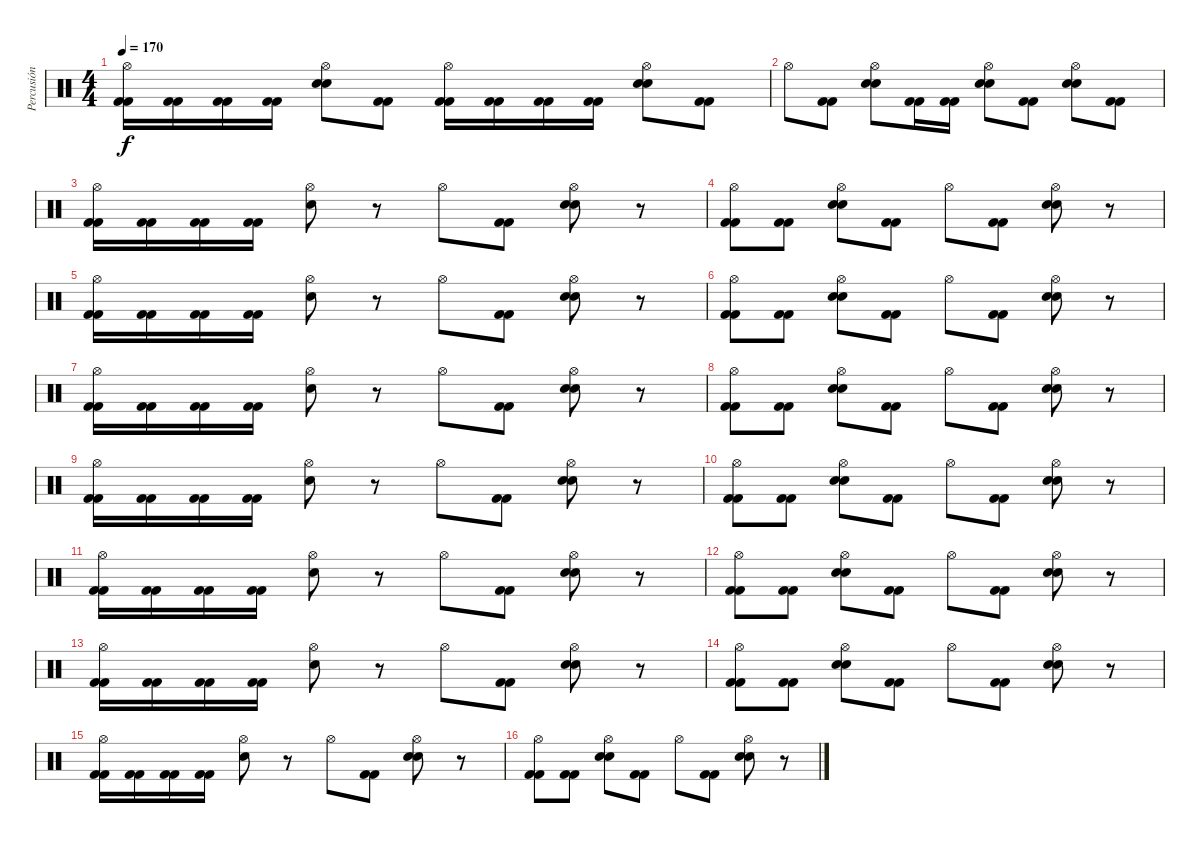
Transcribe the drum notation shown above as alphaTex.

\track ("Percusión" "Percusión") {instrument percussion}
\staff {score}
\articulation defaults
\ts (4 4)
\tempo 170
\clef neutral
\ks c
("Hi-Hat (open)" "Kick (hit) 2" "Kick (hit) 2").16{dy f} ("Kick (hit) 2" "Kick (hit) 2").16 ("Kick (hit) 2" "Kick (hit) 2").16 ("Kick (hit) 2" "Kick (hit) 2").16 ("Hi-Hat (open)" "Electric Snare (hit)" "Electric Snare (hit)").8 ("Kick (hit) 2" "Kick (hit) 2").8 ("Hi-Hat (open)" "Kick (hit) 2" "Kick (hit) 2").16 ("Kick (hit) 2" "Kick (hit) 2").16 ("Kick (hit) 2" "Kick (hit) 2").16 ("Kick (hit) 2" "Kick (hit) 2").16 ("Hi-Hat (open)" "Electric Snare (hit)" "Electric Snare (hit)").8 ("Kick (hit) 2" "Kick (hit) 2").8 |
"Hi-Hat (open)".8 ("Kick (hit) 2" "Kick (hit) 2").8 ("Hi-Hat (open)" "Electric Snare (hit)" "Electric Snare (hit)").8 ("Kick (hit) 2" "Kick (hit) 2").16 ("Kick (hit) 2" "Kick (hit) 2").16 ("Hi-Hat (open)" "Electric Snare (hit)" "Electric Snare (hit)").8 ("Kick (hit) 2" "Kick (hit) 2").8 ("Hi-Hat (open)" "Electric Snare (hit)" "Electric Snare (hit)").8 ("Kick (hit) 2" "Kick (hit) 2").8 |
("Hi-Hat (open)" "Kick (hit) 2" "Kick (hit) 2").16 ("Kick (hit) 2" "Kick (hit) 2").16 ("Kick (hit) 2" "Kick (hit) 2").16 ("Kick (hit) 2" "Kick (hit) 2").16 ("Hi-Hat (open)" "Electric Snare (hit)").8 r.8 "Hi-Hat (open)".8 ("Kick (hit) 2" "Kick (hit) 2").8 ("Hi-Hat (open)" "Electric Snare (hit)" "Electric Snare (hit)").8 r.8 |
("Hi-Hat (open)" "Kick (hit) 2" "Kick (hit) 2").8 ("Kick (hit) 2" "Kick (hit) 2").8 ("Hi-Hat (open)" "Electric Snare (hit)" "Electric Snare (hit)").8 ("Kick (hit) 2" "Kick (hit) 2").8 "Hi-Hat (open)".8 ("Kick (hit) 2" "Kick (hit) 2").8 ("Hi-Hat (open)" "Electric Snare (hit)" "Electric Snare (hit)").8 r.8 |
("Hi-Hat (open)" "Kick (hit) 2" "Kick (hit) 2").16 ("Kick (hit) 2" "Kick (hit) 2").16 ("Kick (hit) 2" "Kick (hit) 2").16 ("Kick (hit) 2" "Kick (hit) 2").16 ("Hi-Hat (open)" "Electric Snare (hit)").8 r.8 "Hi-Hat (open)".8 ("Kick (hit) 2" "Kick (hit) 2").8 ("Hi-Hat (open)" "Electric Snare (hit)" "Electric Snare (hit)").8 r.8 |
("Hi-Hat (open)" "Kick (hit) 2" "Kick (hit) 2").8 ("Kick (hit) 2" "Kick (hit) 2").8 ("Hi-Hat (open)" "Electric Snare (hit)" "Electric Snare (hit)").8 ("Kick (hit) 2" "Kick (hit) 2").8 "Hi-Hat (open)".8 ("Kick (hit) 2" "Kick (hit) 2").8 ("Hi-Hat (open)" "Electric Snare (hit)" "Electric Snare (hit)").8 r.8 |
("Hi-Hat (open)" "Kick (hit) 2" "Kick (hit) 2").16 ("Kick (hit) 2" "Kick (hit) 2").16 ("Kick (hit) 2" "Kick (hit) 2").16 ("Kick (hit) 2" "Kick (hit) 2").16 ("Hi-Hat (open)" "Electric Snare (hit)").8 r.8 "Hi-Hat (open)".8 ("Kick (hit) 2" "Kick (hit) 2").8 ("Hi-Hat (open)" "Electric Snare (hit)" "Electric Snare (hit)").8 r.8 |
("Hi-Hat (open)" "Kick (hit) 2" "Kick (hit) 2").8 ("Kick (hit) 2" "Kick (hit) 2").8 ("Hi-Hat (open)" "Electric Snare (hit)" "Electric Snare (hit)").8 ("Kick (hit) 2" "Kick (hit) 2").8 "Hi-Hat (open)".8 ("Kick (hit) 2" "Kick (hit) 2").8 ("Hi-Hat (open)" "Electric Snare (hit)" "Electric Snare (hit)").8 r.8 |
("Hi-Hat (open)" "Kick (hit) 2" "Kick (hit) 2").16 ("Kick (hit) 2" "Kick (hit) 2").16 ("Kick (hit) 2" "Kick (hit) 2").16 ("Kick (hit) 2" "Kick (hit) 2").16 ("Hi-Hat (open)" "Electric Snare (hit)").8 r.8 "Hi-Hat (open)".8 ("Kick (hit) 2" "Kick (hit) 2").8 ("Hi-Hat (open)" "Electric Snare (hit)" "Electric Snare (hit)").8 r.8 |
("Hi-Hat (open)" "Kick (hit) 2" "Kick (hit) 2").8 ("Kick (hit) 2" "Kick (hit) 2").8 ("Hi-Hat (open)" "Electric Snare (hit)" "Electric Snare (hit)").8 ("Kick (hit) 2" "Kick (hit) 2").8 "Hi-Hat (open)".8 ("Kick (hit) 2" "Kick (hit) 2").8 ("Hi-Hat (open)" "Electric Snare (hit)" "Electric Snare (hit)").8 r.8 |
("Hi-Hat (open)" "Kick (hit) 2" "Kick (hit) 2").16 ("Kick (hit) 2" "Kick (hit) 2").16 ("Kick (hit) 2" "Kick (hit) 2").16 ("Kick (hit) 2" "Kick (hit) 2").16 ("Hi-Hat (open)" "Electric Snare (hit)").8 r.8 "Hi-Hat (open)".8 ("Kick (hit) 2" "Kick (hit) 2").8 ("Hi-Hat (open)" "Electric Snare (hit)" "Electric Snare (hit)").8 r.8 |
("Hi-Hat (open)" "Kick (hit) 2" "Kick (hit) 2").8 ("Kick (hit) 2" "Kick (hit) 2").8 ("Hi-Hat (open)" "Electric Snare (hit)" "Electric Snare (hit)").8 ("Kick (hit) 2" "Kick (hit) 2").8 "Hi-Hat (open)".8 ("Kick (hit) 2" "Kick (hit) 2").8 ("Hi-Hat (open)" "Electric Snare (hit)" "Electric Snare (hit)").8 r.8 |
("Hi-Hat (open)" "Kick (hit) 2" "Kick (hit) 2").16 ("Kick (hit) 2" "Kick (hit) 2").16 ("Kick (hit) 2" "Kick (hit) 2").16 ("Kick (hit) 2" "Kick (hit) 2").16 ("Hi-Hat (open)" "Electric Snare (hit)").8 r.8 "Hi-Hat (open)".8 ("Kick (hit) 2" "Kick (hit) 2").8 ("Hi-Hat (open)" "Electric Snare (hit)" "Electric Snare (hit)").8 r.8 |
("Hi-Hat (open)" "Kick (hit) 2" "Kick (hit) 2").8 ("Kick (hit) 2" "Kick (hit) 2").8 ("Hi-Hat (open)" "Electric Snare (hit)" "Electric Snare (hit)").8 ("Kick (hit) 2" "Kick (hit) 2").8 "Hi-Hat (open)".8 ("Kick (hit) 2" "Kick (hit) 2").8 ("Hi-Hat (open)" "Electric Snare (hit)" "Electric Snare (hit)").8 r.8 |
("Hi-Hat (open)" "Kick (hit) 2" "Kick (hit) 2").16 ("Kick (hit) 2" "Kick (hit) 2").16 ("Kick (hit) 2" "Kick (hit) 2").16 ("Kick (hit) 2" "Kick (hit) 2").16 ("Hi-Hat (open)" "Electric Snare (hit)").8 r.8 "Hi-Hat (open)".8 ("Kick (hit) 2" "Kick (hit) 2").8 ("Hi-Hat (open)" "Electric Snare (hit)" "Electric Snare (hit)").8 r.8 |
("Hi-Hat (open)" "Kick (hit) 2" "Kick (hit) 2").8 ("Kick (hit) 2" "Kick (hit) 2").8 ("Hi-Hat (open)" "Electric Snare (hit)" "Electric Snare (hit)").8 ("Kick (hit) 2" "Kick (hit) 2").8 "Hi-Hat (open)".8 ("Kick (hit) 2" "Kick (hit) 2").8 ("Hi-Hat (open)" "Electric Snare (hit)" "Electric Snare (hit)").8 r.8
